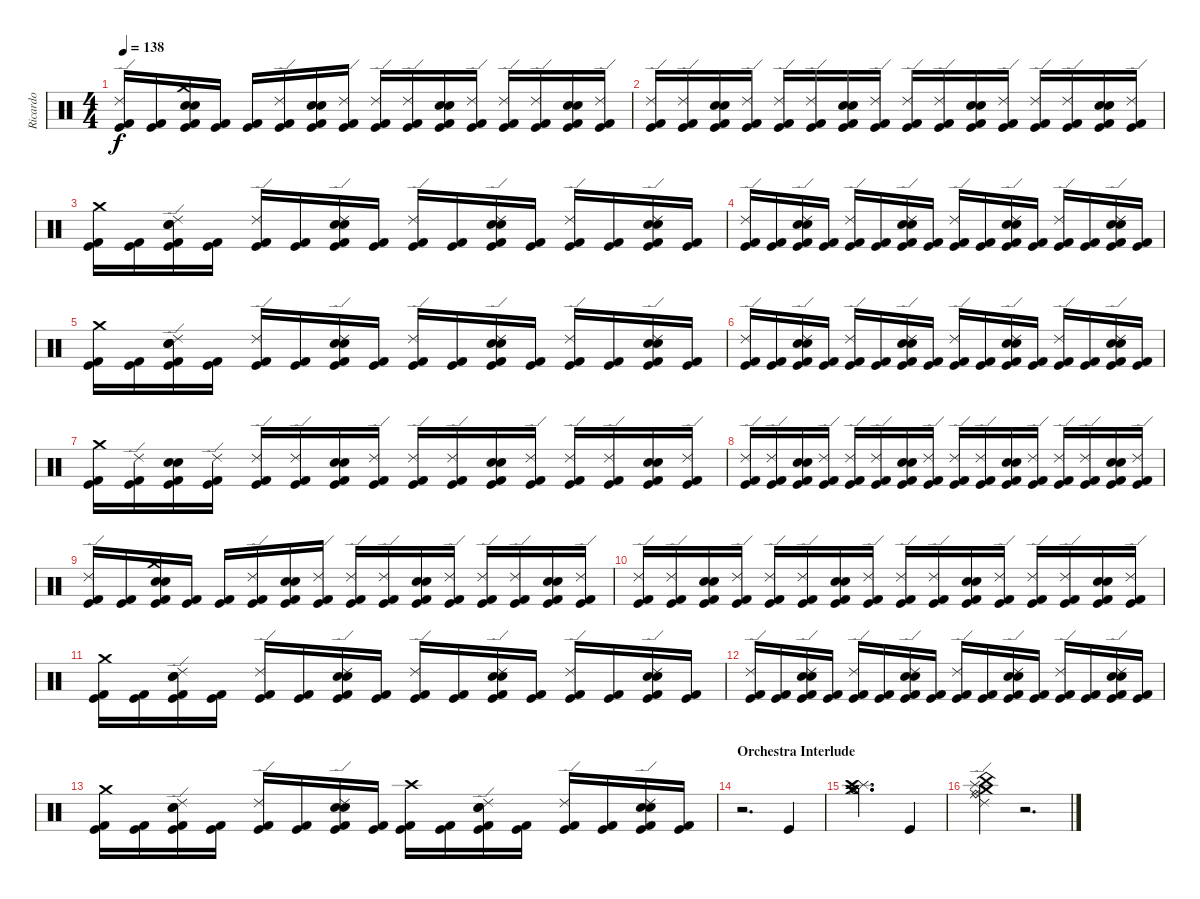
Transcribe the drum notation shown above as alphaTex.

\track ("Ricardo" "Ricardo") {instrument percussion}
\staff {score}
\articulation defaults
\ts (4 4)
\tempo 138
\clef neutral
\ks c
("Ride (edge) 2" "Kick (hit) 2" "Kick (hit)").16{dy f} ("Kick (hit) 2" "Kick (hit)").16 ("Crash medium (hit)" "Electric Snare (hit)" "Snare (hit) 2" "Kick (hit) 2" "Kick (hit)").16 ("Kick (hit) 2" "Kick (hit)").16 ("Kick (hit) 2" "Kick (hit)").16 ("Ride (edge) 2" "Kick (hit) 2" "Kick (hit)").16 ("Electric Snare (hit)" "Snare (hit) 2" "Kick (hit) 2" "Kick (hit)").16 ("Ride (edge) 2" "Kick (hit) 2" "Kick (hit)").16 ("Ride (edge) 2" "Kick (hit) 2" "Kick (hit)").16 ("Ride (edge) 2" "Kick (hit) 2" "Kick (hit)").16 ("Electric Snare (hit)" "Snare (hit) 2" "Kick (hit) 2" "Kick (hit)").16 ("Ride (edge) 2" "Kick (hit) 2" "Kick (hit)").16 ("Ride (edge) 2" "Kick (hit) 2" "Kick (hit)").16 ("Ride (edge) 2" "Kick (hit) 2" "Kick (hit)").16 ("Electric Snare (hit)" "Snare (hit) 2" "Kick (hit) 2" "Kick (hit)").16 ("Ride (edge) 2" "Kick (hit) 2" "Kick (hit)").16 |
("Ride (edge) 2" "Kick (hit) 2" "Kick (hit)").16 ("Ride (edge) 2" "Kick (hit) 2" "Kick (hit)").16 ("Electric Snare (hit)" "Snare (hit) 2" "Kick (hit) 2" "Kick (hit)").16 ("Ride (edge) 2" "Kick (hit) 2" "Kick (hit)").16 ("Ride (edge) 2" "Kick (hit) 2" "Kick (hit)").16 ("Ride (edge) 2" "Kick (hit) 2" "Kick (hit)").16 ("Electric Snare (hit)" "Snare (hit) 2" "Kick (hit) 2" "Kick (hit)").16 ("Ride (edge) 2" "Kick (hit) 2" "Kick (hit)").16 ("Ride (edge) 2" "Kick (hit) 2" "Kick (hit)").16 ("Ride (edge) 2" "Kick (hit) 2" "Kick (hit)").16 ("Electric Snare (hit)" "Snare (hit) 2" "Kick (hit) 2" "Kick (hit)").16 ("Ride (edge) 2" "Kick (hit) 2" "Kick (hit)").16 ("Ride (edge) 2" "Kick (hit) 2" "Kick (hit)").16 ("Ride (edge) 2" "Kick (hit) 2" "Kick (hit)").16 ("Electric Snare (hit)" "Snare (hit) 2" "Kick (hit) 2" "Kick (hit)").16 ("Ride (edge) 2" "Kick (hit) 2" "Kick (hit)").16 |
("Crash medium (hit)" "Kick (hit) 2" "Kick (hit)").16 ("Kick (hit) 2" "Kick (hit)").16 ("Ride (edge) 2" "Electric Snare (hit)" "Snare (hit) 2" "Kick (hit) 2" "Kick (hit)").16 ("Kick (hit) 2" "Kick (hit)").16 ("Ride (edge) 2" "Kick (hit) 2" "Kick (hit)").16 ("Kick (hit) 2" "Kick (hit)").16 ("Ride (edge) 2" "Electric Snare (hit)" "Snare (hit) 2" "Kick (hit) 2" "Kick (hit)").16 ("Kick (hit) 2" "Kick (hit)").16 ("Ride (edge) 2" "Kick (hit) 2" "Kick (hit)").16 ("Kick (hit) 2" "Kick (hit)").16 ("Ride (edge) 2" "Electric Snare (hit)" "Snare (hit) 2" "Kick (hit) 2" "Kick (hit)").16 ("Kick (hit) 2" "Kick (hit)").16 ("Ride (edge) 2" "Kick (hit) 2" "Kick (hit)").16 ("Kick (hit) 2" "Kick (hit)").16 ("Ride (edge) 2" "Electric Snare (hit)" "Snare (hit) 2" "Kick (hit) 2" "Kick (hit)").16 ("Kick (hit) 2" "Kick (hit)").16 |
("Ride (edge) 2" "Kick (hit) 2" "Kick (hit)").16 ("Kick (hit) 2" "Kick (hit)").16 ("Ride (edge) 2" "Electric Snare (hit)" "Snare (hit) 2" "Kick (hit) 2" "Kick (hit)").16 ("Kick (hit) 2" "Kick (hit)").16 ("Ride (edge) 2" "Kick (hit) 2" "Kick (hit)").16 ("Kick (hit) 2" "Kick (hit)").16 ("Ride (edge) 2" "Electric Snare (hit)" "Snare (hit) 2" "Kick (hit) 2" "Kick (hit)").16 ("Kick (hit) 2" "Kick (hit)").16 ("Ride (edge) 2" "Kick (hit) 2" "Kick (hit)").16 ("Kick (hit) 2" "Kick (hit)").16 ("Ride (edge) 2" "Electric Snare (hit)" "Snare (hit) 2" "Kick (hit) 2" "Kick (hit)").16 ("Kick (hit) 2" "Kick (hit)").16 ("Ride (edge) 2" "Kick (hit) 2" "Kick (hit)").16 ("Kick (hit) 2" "Kick (hit)").16 ("Ride (edge) 2" "Electric Snare (hit)" "Snare (hit) 2" "Kick (hit) 2" "Kick (hit)").16 ("Kick (hit) 2" "Kick (hit)").16 |
("Crash medium (hit)" "Kick (hit) 2" "Kick (hit)").16 ("Kick (hit) 2" "Kick (hit)").16 ("Ride (edge) 2" "Electric Snare (hit)" "Snare (hit) 2" "Kick (hit) 2" "Kick (hit)").16 ("Kick (hit) 2" "Kick (hit)").16 ("Ride (edge) 2" "Kick (hit) 2" "Kick (hit)").16 ("Kick (hit) 2" "Kick (hit)").16 ("Ride (edge) 2" "Electric Snare (hit)" "Snare (hit) 2" "Kick (hit) 2" "Kick (hit)").16 ("Kick (hit) 2" "Kick (hit)").16 ("Ride (edge) 2" "Kick (hit) 2" "Kick (hit)").16 ("Kick (hit) 2" "Kick (hit)").16 ("Ride (edge) 2" "Electric Snare (hit)" "Snare (hit) 2" "Kick (hit) 2" "Kick (hit)").16 ("Kick (hit) 2" "Kick (hit)").16 ("Ride (edge) 2" "Kick (hit) 2" "Kick (hit)").16 ("Kick (hit) 2" "Kick (hit)").16 ("Ride (edge) 2" "Electric Snare (hit)" "Snare (hit) 2" "Kick (hit) 2" "Kick (hit)").16 ("Kick (hit) 2" "Kick (hit)").16 |
("Ride (edge) 2" "Kick (hit) 2" "Kick (hit)").16 ("Kick (hit) 2" "Kick (hit)").16 ("Ride (edge) 2" "Electric Snare (hit)" "Snare (hit) 2" "Kick (hit) 2" "Kick (hit)").16 ("Kick (hit) 2" "Kick (hit)").16 ("Ride (edge) 2" "Kick (hit) 2" "Kick (hit)").16 ("Kick (hit) 2" "Kick (hit)").16 ("Ride (edge) 2" "Electric Snare (hit)" "Snare (hit) 2" "Kick (hit) 2" "Kick (hit)").16 ("Kick (hit) 2" "Kick (hit)").16 ("Ride (edge) 2" "Kick (hit) 2" "Kick (hit)").16 ("Kick (hit) 2" "Kick (hit)").16 ("Ride (edge) 2" "Electric Snare (hit)" "Snare (hit) 2" "Kick (hit) 2" "Kick (hit)").16 ("Kick (hit) 2" "Kick (hit)").16 ("Ride (edge) 2" "Kick (hit) 2" "Kick (hit)").16 ("Kick (hit) 2" "Kick (hit)").16 ("Ride (edge) 2" "Electric Snare (hit)" "Snare (hit) 2" "Kick (hit) 2" "Kick (hit)").16 ("Kick (hit) 2" "Kick (hit)").16 |
("Crash medium (hit)" "Kick (hit) 2" "Kick (hit)").16 ("Ride (edge) 2" "Kick (hit) 2" "Kick (hit)").16 ("Electric Snare (hit)" "Snare (hit) 2" "Kick (hit) 2" "Kick (hit)").16 ("Ride (edge) 2" "Kick (hit) 2" "Kick (hit)").16 ("Ride (edge) 2" "Kick (hit) 2" "Kick (hit)").16 ("Ride (edge) 2" "Kick (hit) 2" "Kick (hit)").16 ("Electric Snare (hit)" "Snare (hit) 2" "Kick (hit) 2" "Kick (hit)").16 ("Ride (edge) 2" "Kick (hit) 2" "Kick (hit)").16 ("Ride (edge) 2" "Kick (hit) 2" "Kick (hit)").16 ("Ride (edge) 2" "Kick (hit) 2" "Kick (hit)").16 ("Electric Snare (hit)" "Snare (hit) 2" "Kick (hit) 2" "Kick (hit)").16 ("Ride (edge) 2" "Kick (hit) 2" "Kick (hit)").16 ("Ride (edge) 2" "Kick (hit) 2" "Kick (hit)").16 ("Ride (edge) 2" "Kick (hit) 2" "Kick (hit)").16 ("Electric Snare (hit)" "Snare (hit) 2" "Kick (hit) 2" "Kick (hit)").16 ("Ride (edge) 2" "Kick (hit) 2" "Kick (hit)").16 |
("Ride (edge) 2" "Kick (hit) 2" "Kick (hit)").16 ("Ride (edge) 2" "Kick (hit) 2" "Kick (hit)").16 ("Electric Snare (hit)" "Snare (hit) 2" "Kick (hit) 2" "Kick (hit)").16 ("Ride (edge) 2" "Kick (hit) 2" "Kick (hit)").16 ("Ride (edge) 2" "Kick (hit) 2" "Kick (hit)").16 ("Ride (edge) 2" "Kick (hit) 2" "Kick (hit)").16 ("Electric Snare (hit)" "Snare (hit) 2" "Kick (hit) 2" "Kick (hit)").16 ("Ride (edge) 2" "Kick (hit) 2" "Kick (hit)").16 ("Ride (edge) 2" "Kick (hit) 2" "Kick (hit)").16 ("Ride (edge) 2" "Kick (hit) 2" "Kick (hit)").16 ("Electric Snare (hit)" "Snare (hit) 2" "Kick (hit) 2" "Kick (hit)").16 ("Ride (edge) 2" "Kick (hit) 2" "Kick (hit)").16 ("Ride (edge) 2" "Kick (hit) 2" "Kick (hit)").16 ("Ride (edge) 2" "Kick (hit) 2" "Kick (hit)").16 ("Electric Snare (hit)" "Snare (hit) 2" "Kick (hit) 2" "Kick (hit)").16 ("Ride (edge) 2" "Kick (hit) 2" "Kick (hit)").16 |
("Ride (edge) 2" "Kick (hit) 2" "Kick (hit)").16 ("Kick (hit) 2" "Kick (hit)").16 ("Crash medium (hit)" "Electric Snare (hit)" "Snare (hit) 2" "Kick (hit) 2" "Kick (hit)").16 ("Kick (hit) 2" "Kick (hit)").16 ("Kick (hit) 2" "Kick (hit)").16 ("Ride (edge) 2" "Kick (hit) 2" "Kick (hit)").16 ("Electric Snare (hit)" "Snare (hit) 2" "Kick (hit) 2" "Kick (hit)").16 ("Ride (edge) 2" "Kick (hit) 2" "Kick (hit)").16 ("Ride (edge) 2" "Kick (hit) 2" "Kick (hit)").16 ("Ride (edge) 2" "Kick (hit) 2" "Kick (hit)").16 ("Electric Snare (hit)" "Snare (hit) 2" "Kick (hit) 2" "Kick (hit)").16 ("Ride (edge) 2" "Kick (hit) 2" "Kick (hit)").16 ("Ride (edge) 2" "Kick (hit) 2" "Kick (hit)").16 ("Ride (edge) 2" "Kick (hit) 2" "Kick (hit)").16 ("Electric Snare (hit)" "Snare (hit) 2" "Kick (hit) 2" "Kick (hit)").16 ("Ride (edge) 2" "Kick (hit) 2" "Kick (hit)").16 |
("Ride (edge) 2" "Kick (hit) 2" "Kick (hit)").16 ("Ride (edge) 2" "Kick (hit) 2" "Kick (hit)").16 ("Electric Snare (hit)" "Snare (hit) 2" "Kick (hit) 2" "Kick (hit)").16 ("Ride (edge) 2" "Kick (hit) 2" "Kick (hit)").16 ("Ride (edge) 2" "Kick (hit) 2" "Kick (hit)").16 ("Ride (edge) 2" "Kick (hit) 2" "Kick (hit)").16 ("Electric Snare (hit)" "Snare (hit) 2" "Kick (hit) 2" "Kick (hit)").16 ("Ride (edge) 2" "Kick (hit) 2" "Kick (hit)").16 ("Ride (edge) 2" "Kick (hit) 2" "Kick (hit)").16 ("Ride (edge) 2" "Kick (hit) 2" "Kick (hit)").16 ("Electric Snare (hit)" "Snare (hit) 2" "Kick (hit) 2" "Kick (hit)").16 ("Ride (edge) 2" "Kick (hit) 2" "Kick (hit)").16 ("Ride (edge) 2" "Kick (hit) 2" "Kick (hit)").16 ("Ride (edge) 2" "Kick (hit) 2" "Kick (hit)").16 ("Electric Snare (hit)" "Snare (hit) 2" "Kick (hit) 2" "Kick (hit)").16 ("Ride (edge) 2" "Kick (hit) 2" "Kick (hit)").16 |
("Crash medium (hit)" "Kick (hit) 2" "Kick (hit)").16 ("Kick (hit) 2" "Kick (hit)").16 ("Ride (edge) 2" "Electric Snare (hit)" "Snare (hit) 2" "Kick (hit) 2" "Kick (hit)").16 ("Kick (hit) 2" "Kick (hit)").16 ("Ride (edge) 2" "Kick (hit) 2" "Kick (hit)").16 ("Kick (hit) 2" "Kick (hit)").16 ("Ride (edge) 2" "Electric Snare (hit)" "Snare (hit) 2" "Kick (hit) 2" "Kick (hit)").16 ("Kick (hit) 2" "Kick (hit)").16 ("Ride (edge) 2" "Kick (hit) 2" "Kick (hit)").16 ("Kick (hit) 2" "Kick (hit)").16 ("Ride (edge) 2" "Electric Snare (hit)" "Snare (hit) 2" "Kick (hit) 2" "Kick (hit)").16 ("Kick (hit) 2" "Kick (hit)").16 ("Ride (edge) 2" "Kick (hit) 2" "Kick (hit)").16 ("Kick (hit) 2" "Kick (hit)").16 ("Ride (edge) 2" "Electric Snare (hit)" "Snare (hit) 2" "Kick (hit) 2" "Kick (hit)").16 ("Kick (hit) 2" "Kick (hit)").16 |
("Ride (edge) 2" "Kick (hit) 2" "Kick (hit)").16 ("Kick (hit) 2" "Kick (hit)").16 ("Ride (edge) 2" "Electric Snare (hit)" "Snare (hit) 2" "Kick (hit) 2" "Kick (hit)").16 ("Kick (hit) 2" "Kick (hit)").16 ("Ride (edge) 2" "Kick (hit) 2" "Kick (hit)").16 ("Kick (hit) 2" "Kick (hit)").16 ("Ride (edge) 2" "Electric Snare (hit)" "Snare (hit) 2" "Kick (hit) 2" "Kick (hit)").16 ("Kick (hit) 2" "Kick (hit)").16 ("Ride (edge) 2" "Kick (hit) 2" "Kick (hit)").16 ("Kick (hit) 2" "Kick (hit)").16 ("Ride (edge) 2" "Electric Snare (hit)" "Snare (hit) 2" "Kick (hit) 2" "Kick (hit)").16 ("Kick (hit) 2" "Kick (hit)").16 ("Ride (edge) 2" "Kick (hit) 2" "Kick (hit)").16 ("Kick (hit) 2" "Kick (hit)").16 ("Ride (edge) 2" "Electric Snare (hit)" "Snare (hit) 2" "Kick (hit) 2" "Kick (hit)").16 ("Kick (hit) 2" "Kick (hit)").16 |
("Crash medium (hit)" "Kick (hit) 2" "Kick (hit)").16 ("Kick (hit) 2" "Kick (hit)").16 ("Ride (edge) 2" "Electric Snare (hit)" "Snare (hit) 2" "Kick (hit) 2" "Kick (hit)").16 ("Kick (hit) 2" "Kick (hit)").16 ("Ride (edge) 2" "Kick (hit) 2" "Kick (hit)").16 ("Kick (hit) 2" "Kick (hit)").16 ("Ride (edge) 2" "Electric Snare (hit)" "Snare (hit) 2" "Kick (hit) 2" "Kick (hit)").16 ("Kick (hit) 2" "Kick (hit)").16 ("Crash high (hit)" "Kick (hit) 2" "Kick (hit)").16 ("Kick (hit) 2" "Kick (hit)").16 ("Ride (edge) 2" "Electric Snare (hit)" "Snare (hit) 2" "Kick (hit) 2" "Kick (hit)").16 ("Kick (hit) 2" "Kick (hit)").16 ("Ride (edge) 2" "Kick (hit) 2" "Kick (hit)").16 ("Kick (hit) 2" "Kick (hit)").16 ("Ride (edge) 2" "Electric Snare (hit)" "Snare (hit) 2" "Kick (hit) 2" "Kick (hit)").16 ("Kick (hit) 2" "Kick (hit)").16 |
\section ("" "Orchestra Interlude")
r.2{d} "Kick (hit)".4 |
("Hi-Hat (open)" "Splash (hit)" "Crash medium (hit)" "Crash high (hit)" "Hi-Hat (closed)" "Hi-Hat (open)").2{d} "Kick (hit)".4 |
("Ride (middle)" "Ride (bell)" "Ride (edge) 2" "Splash (hit)" "Crash medium (hit)" "China (hit)").4 r.2{d}
